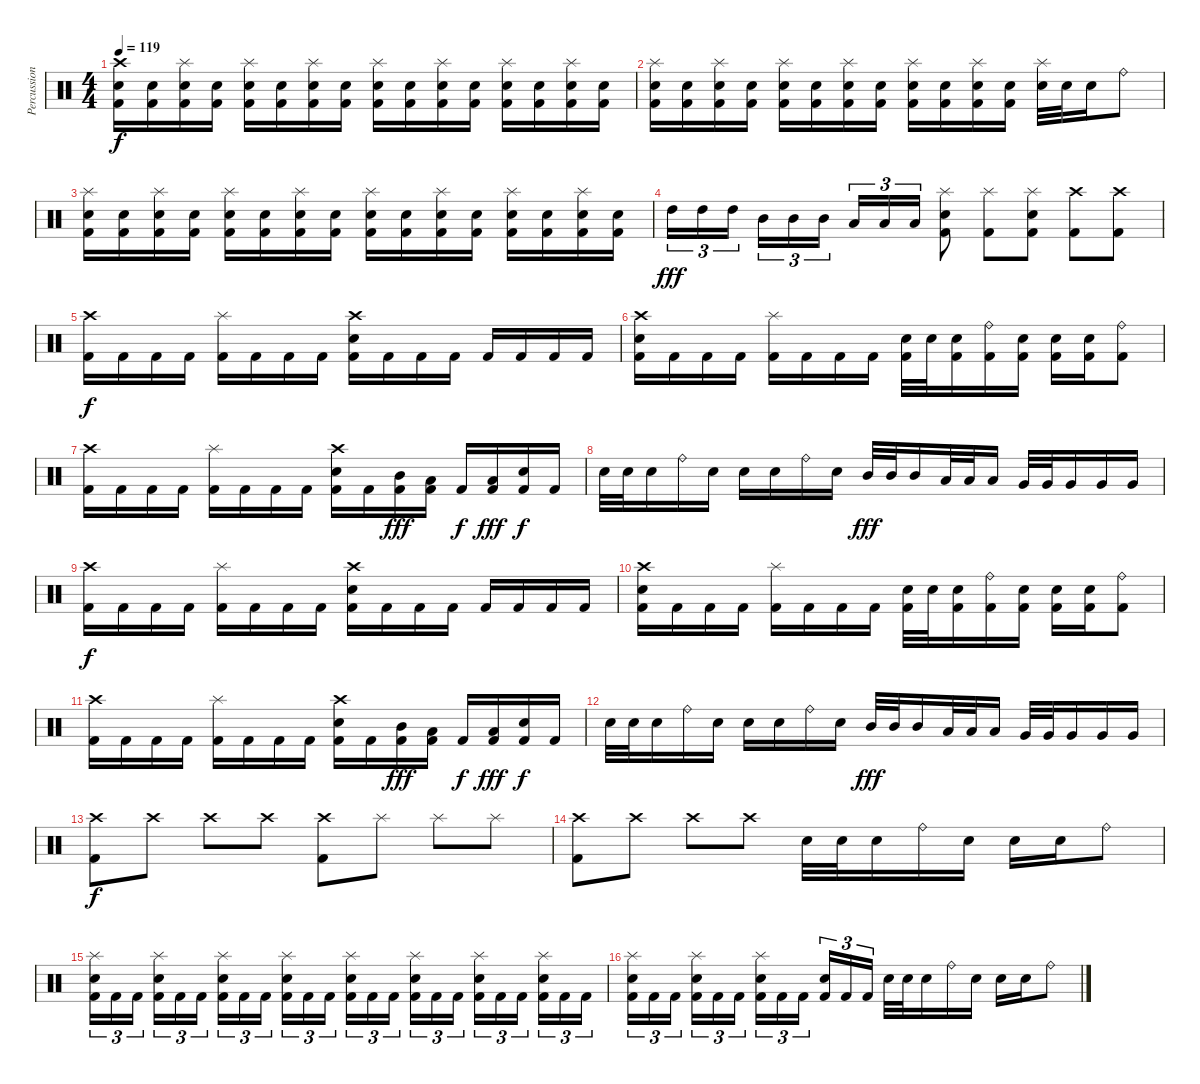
\track ("Percussion" "Percussion") {instrument percussion}
\staff {score}
\articulation defaults
\ts (4 4)
\tempo 119
\clef neutral
\ks c
("Crash high (hit)" "Electric Snare (hit)" "Kick (hit) 2").16{dy f} ("Electric Snare (hit)" "Kick (hit) 2").16 ("Splash (hit)" "Electric Snare (hit)" "Kick (hit) 2").16 ("Electric Snare (hit)" "Kick (hit) 2").16 ("Splash (hit)" "Electric Snare (hit)" "Kick (hit) 2").16 ("Electric Snare (hit)" "Kick (hit) 2").16 ("Splash (hit)" "Electric Snare (hit)" "Kick (hit) 2").16 ("Electric Snare (hit)" "Kick (hit) 2").16 ("Splash (hit)" "Electric Snare (hit)" "Kick (hit) 2").16 ("Electric Snare (hit)" "Kick (hit) 2").16 ("Splash (hit)" "Electric Snare (hit)" "Kick (hit) 2").16 ("Electric Snare (hit)" "Kick (hit) 2").16 ("Splash (hit)" "Electric Snare (hit)" "Kick (hit) 2").16 ("Electric Snare (hit)" "Kick (hit) 2").16 ("Splash (hit)" "Electric Snare (hit)" "Kick (hit) 2").16 ("Electric Snare (hit)" "Kick (hit) 2").16 |
("Splash (hit)" "Electric Snare (hit)" "Kick (hit) 2").16 ("Electric Snare (hit)" "Kick (hit) 2").16 ("Splash (hit)" "Electric Snare (hit)" "Kick (hit) 2").16 ("Electric Snare (hit)" "Kick (hit) 2").16 ("Splash (hit)" "Electric Snare (hit)" "Kick (hit) 2").16 ("Electric Snare (hit)" "Kick (hit) 2").16 ("Splash (hit)" "Electric Snare (hit)" "Kick (hit) 2").16 ("Electric Snare (hit)" "Kick (hit) 2").16 ("Splash (hit)" "Electric Snare (hit)" "Kick (hit) 2").16 ("Electric Snare (hit)" "Kick (hit) 2").16 ("Splash (hit)" "Electric Snare (hit)" "Kick (hit) 2").16 ("Electric Snare (hit)" "Kick (hit) 2").16 ("Splash (hit)" "Electric Snare (hit)").32 "Electric Snare (hit)".32 "Electric Snare (hit)".16 "Ride (bell)".8 |
("Splash (hit)" "Electric Snare (hit)" "Kick (hit) 2").16 ("Electric Snare (hit)" "Kick (hit) 2").16 ("Splash (hit)" "Electric Snare (hit)" "Kick (hit) 2").16 ("Electric Snare (hit)" "Kick (hit) 2").16 ("Splash (hit)" "Electric Snare (hit)" "Kick (hit) 2").16 ("Electric Snare (hit)" "Kick (hit) 2").16 ("Splash (hit)" "Electric Snare (hit)" "Kick (hit) 2").16 ("Electric Snare (hit)" "Kick (hit) 2").16 ("Splash (hit)" "Electric Snare (hit)" "Kick (hit) 2").16 ("Electric Snare (hit)" "Kick (hit) 2").16 ("Splash (hit)" "Electric Snare (hit)" "Kick (hit) 2").16 ("Electric Snare (hit)" "Kick (hit) 2").16 ("Splash (hit)" "Electric Snare (hit)" "Kick (hit) 2").16 ("Electric Snare (hit)" "Kick (hit) 2").16 ("Splash (hit)" "Electric Snare (hit)" "Kick (hit) 2").16 ("Electric Snare (hit)" "Kick (hit) 2").16 |
"High Tom (hit)".16{tu (3 2) dy fff} "High Tom (hit)".16{tu (3 2)} "High Tom (hit)".16{tu (3 2)} "Mid Tom (hit)".16{tu (3 2)} "Mid Tom (hit)".16{tu (3 2)} "Mid Tom (hit)".16{tu (3 2)} "Low Tom (hit)".16{tu (3 2)} "Low Tom (hit)".16{tu (3 2)} "Low Tom (hit)".16{tu (3 2)} ("Splash (hit)" "Electric Snare (hit)" "Kick (hit) 2").8 ("Splash (hit)" "Kick (hit) 2").8 ("Splash (hit)" "Electric Snare (hit)" "Kick (hit) 2").8 ("Crash high (hit)" "Kick (hit) 2").8 ("Crash high (hit)" "Kick (hit) 2").8 |
("Crash high (hit)" "Kick (hit) 2").16{dy f} "Kick (hit) 2".16 "Kick (hit) 2".16 "Kick (hit) 2".16 ("Splash (hit)" "Kick (hit) 2").16 "Kick (hit) 2".16 "Kick (hit) 2".16 "Kick (hit) 2".16 ("Crash high (hit)" "Electric Snare (hit)" "Kick (hit) 2").16 "Kick (hit) 2".16 "Kick (hit) 2".16 "Kick (hit) 2".16 "Kick (hit) 2".16 "Kick (hit) 2".16 "Kick (hit) 2".16 "Kick (hit) 2".16 |
("Crash high (hit)" "Electric Snare (hit)" "Kick (hit) 2").16 "Kick (hit) 2".16 "Kick (hit) 2".16 "Kick (hit) 2".16 ("Splash (hit)" "Kick (hit) 2").16 "Kick (hit) 2".16 "Kick (hit) 2".16 "Kick (hit) 2".16 ("Electric Snare (hit)" "Kick (hit) 2").32 "Electric Snare (hit)".32 ("Electric Snare (hit)" "Kick (hit) 2").16 ("Ride (bell)" "Kick (hit) 2").16 ("Electric Snare (hit)" "Kick (hit) 2").16 ("Electric Snare (hit)" "Kick (hit) 2").16 ("Electric Snare (hit)" "Kick (hit) 2").16 ("Ride (bell)" "Kick (hit) 2").8 |
("Crash high (hit)" "Kick (hit) 2").16 "Kick (hit) 2".16 "Kick (hit) 2".16 "Kick (hit) 2".16 ("Splash (hit)" "Kick (hit) 2").16 "Kick (hit) 2".16 "Kick (hit) 2".16 "Kick (hit) 2".16 ("Crash high (hit)" "Electric Snare (hit)" "Kick (hit) 2").16 "Kick (hit) 2".16 ("Mid Tom (hit)" "Kick (hit) 2").16{dy fff} ("Low Tom (hit)" "Kick (hit) 2").16 "Kick (hit) 2".16{dy f} ("Low Tom (hit)" "Kick (hit) 2").16{dy fff} ("Electric Snare (hit)" "Kick (hit) 2").16{dy f} "Kick (hit) 2".16 |
"Electric Snare (hit)".32 "Electric Snare (hit)".32 "Electric Snare (hit)".16 "Ride (bell)".16 "Electric Snare (hit)".16 "Electric Snare (hit)".16 "Electric Snare (hit)".16 "Ride (bell)".16 "Electric Snare (hit)".16 "Mid Tom (hit)".32{dy fff} "Mid Tom (hit)".32 "Mid Tom (hit)".16 "Low Tom (hit)".32 "Low Tom (hit)".32 "Low Tom (hit)".16 "Very Low Tom (hit)".32 "Very Low Tom (hit)".32 "Very Low Tom (hit)".16 "Very Low Tom (hit)".16 "Very Low Tom (hit)".16 |
("Crash high (hit)" "Kick (hit) 2").16{dy f} "Kick (hit) 2".16 "Kick (hit) 2".16 "Kick (hit) 2".16 ("Splash (hit)" "Kick (hit) 2").16 "Kick (hit) 2".16 "Kick (hit) 2".16 "Kick (hit) 2".16 ("Crash high (hit)" "Electric Snare (hit)" "Kick (hit) 2").16 "Kick (hit) 2".16 "Kick (hit) 2".16 "Kick (hit) 2".16 "Kick (hit) 2".16 "Kick (hit) 2".16 "Kick (hit) 2".16 "Kick (hit) 2".16 |
("Crash high (hit)" "Electric Snare (hit)" "Kick (hit) 2").16 "Kick (hit) 2".16 "Kick (hit) 2".16 "Kick (hit) 2".16 ("Splash (hit)" "Kick (hit) 2").16 "Kick (hit) 2".16 "Kick (hit) 2".16 "Kick (hit) 2".16 ("Electric Snare (hit)" "Kick (hit) 2").32 "Electric Snare (hit)".32 ("Electric Snare (hit)" "Kick (hit) 2").16 ("Ride (bell)" "Kick (hit) 2").16 ("Electric Snare (hit)" "Kick (hit) 2").16 ("Electric Snare (hit)" "Kick (hit) 2").16 ("Electric Snare (hit)" "Kick (hit) 2").16 ("Ride (bell)" "Kick (hit) 2").8 |
("Crash high (hit)" "Kick (hit) 2").16 "Kick (hit) 2".16 "Kick (hit) 2".16 "Kick (hit) 2".16 ("Splash (hit)" "Kick (hit) 2").16 "Kick (hit) 2".16 "Kick (hit) 2".16 "Kick (hit) 2".16 ("Crash high (hit)" "Electric Snare (hit)" "Kick (hit) 2").16 "Kick (hit) 2".16 ("Mid Tom (hit)" "Kick (hit) 2").16{dy fff} ("Low Tom (hit)" "Kick (hit) 2").16 "Kick (hit) 2".16{dy f} ("Low Tom (hit)" "Kick (hit) 2").16{dy fff} ("Electric Snare (hit)" "Kick (hit) 2").16{dy f} "Kick (hit) 2".16 |
"Electric Snare (hit)".32 "Electric Snare (hit)".32 "Electric Snare (hit)".16 "Ride (bell)".16 "Electric Snare (hit)".16 "Electric Snare (hit)".16 "Electric Snare (hit)".16 "Ride (bell)".16 "Electric Snare (hit)".16 "Mid Tom (hit)".32{dy fff} "Mid Tom (hit)".32 "Mid Tom (hit)".16 "Low Tom (hit)".32 "Low Tom (hit)".32 "Low Tom (hit)".16 "Very Low Tom (hit)".32 "Very Low Tom (hit)".32 "Very Low Tom (hit)".16 "Very Low Tom (hit)".16 "Very Low Tom (hit)".16 |
("Crash high (hit)" "Kick (hit) 2").8{dy f} "Crash high (hit)".8 "Crash high (hit)".8 "Crash high (hit)".8 ("Crash high (hit)" "Kick (hit) 2").8 "Splash (hit)".8 "Splash (hit)".8 "Splash (hit)".8 |
("Crash high (hit)" "Kick (hit) 2").8 "Crash high (hit)".8 "Crash high (hit)".8 "Crash high (hit)".8 "Electric Snare (hit)".32 "Electric Snare (hit)".32 "Electric Snare (hit)".16 "Ride (bell)".16 "Electric Snare (hit)".16 "Electric Snare (hit)".16 "Electric Snare (hit)".16 "Ride (bell)".8 |
("Splash (hit)" "Electric Snare (hit)" "Kick (hit) 2").16{tu (3 2)} "Kick (hit) 2".16{tu (3 2)} "Kick (hit) 2".16{tu (3 2)} ("Splash (hit)" "Electric Snare (hit)" "Kick (hit) 2").16{tu (3 2)} "Kick (hit) 2".16{tu (3 2)} "Kick (hit) 2".16{tu (3 2)} ("Splash (hit)" "Electric Snare (hit)" "Kick (hit) 2").16{tu (3 2)} "Kick (hit) 2".16{tu (3 2)} "Kick (hit) 2".16{tu (3 2)} ("Splash (hit)" "Electric Snare (hit)" "Kick (hit) 2").16{tu (3 2)} "Kick (hit) 2".16{tu (3 2)} "Kick (hit) 2".16{tu (3 2)} ("Splash (hit)" "Electric Snare (hit)" "Kick (hit) 2").16{tu (3 2)} "Kick (hit) 2".16{tu (3 2)} "Kick (hit) 2".16{tu (3 2)} ("Splash (hit)" "Electric Snare (hit)" "Kick (hit) 2").16{tu (3 2)} "Kick (hit) 2".16{tu (3 2)} "Kick (hit) 2".16{tu (3 2)} ("Splash (hit)" "Electric Snare (hit)" "Kick (hit) 2").16{tu (3 2)} "Kick (hit) 2".16{tu (3 2)} "Kick (hit) 2".16{tu (3 2)} ("Splash (hit)" "Electric Snare (hit)" "Kick (hit) 2").16{tu (3 2)} "Kick (hit) 2".16{tu (3 2)} "Kick (hit) 2".16{tu (3 2)} |
("Splash (hit)" "Electric Snare (hit)" "Kick (hit) 2").16{tu (3 2)} "Kick (hit) 2".16{tu (3 2)} "Kick (hit) 2".16{tu (3 2)} ("Splash (hit)" "Electric Snare (hit)" "Kick (hit) 2").16{tu (3 2)} "Kick (hit) 2".16{tu (3 2)} "Kick (hit) 2".16{tu (3 2)} ("Splash (hit)" "Electric Snare (hit)" "Kick (hit) 2").16{tu (3 2)} "Kick (hit) 2".16{tu (3 2)} "Kick (hit) 2".16{tu (3 2)} ("Electric Snare (hit)" "Kick (hit) 2").16{tu (3 2)} "Kick (hit) 2".16{tu (3 2)} "Kick (hit) 2".16{tu (3 2)} "Electric Snare (hit)".32 "Electric Snare (hit)".32 "Electric Snare (hit)".16 "Ride (bell)".16 "Electric Snare (hit)".16 "Electric Snare (hit)".16 "Electric Snare (hit)".16 "Ride (bell)".8
